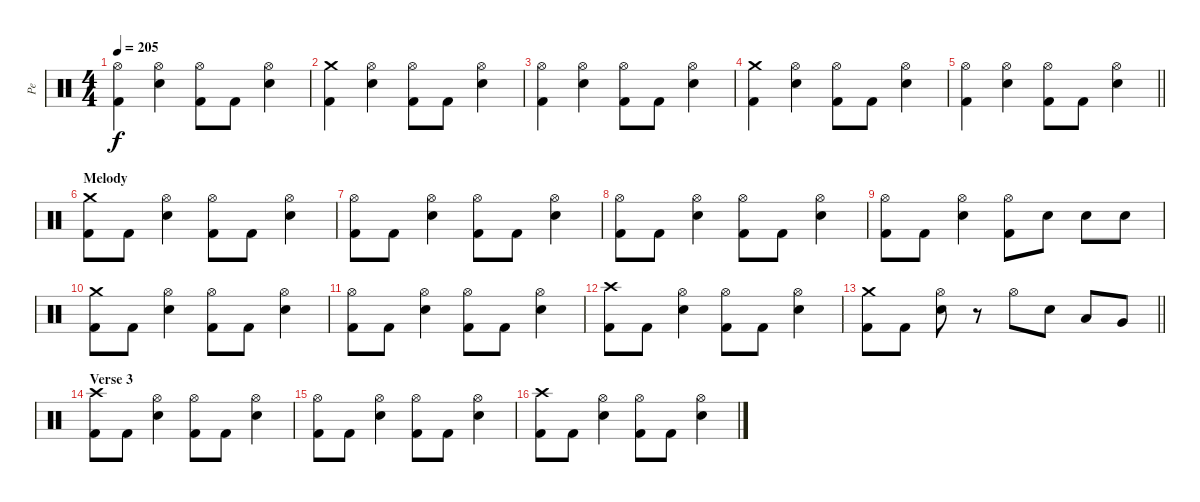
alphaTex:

\track ("Pe" "Pe") {instrument percussion}
\staff {score}
\articulation defaults
\ts (4 4)
\tempo 205
\clef neutral
\ks c
("Hi-Hat (open)" "Kick (hit) 2").4{dy f} ("Hi-Hat (open)" "Electric Snare (hit)").4 ("Hi-Hat (open)" "Kick (hit) 2").8 "Kick (hit) 2".8 ("Hi-Hat (open)" "Electric Snare (hit)").4 |
("Crash medium (hit)" "Kick (hit) 2").4 ("Hi-Hat (open)" "Electric Snare (hit)").4 ("Hi-Hat (open)" "Kick (hit) 2").8 "Kick (hit) 2".8 ("Hi-Hat (open)" "Electric Snare (hit)").4 |
("Hi-Hat (open)" "Kick (hit) 2").4 ("Hi-Hat (open)" "Electric Snare (hit)").4 ("Hi-Hat (open)" "Kick (hit) 2").8 "Kick (hit) 2".8 ("Hi-Hat (open)" "Electric Snare (hit)").4 |
("Crash medium (hit)" "Kick (hit) 2").4 ("Hi-Hat (open)" "Electric Snare (hit)").4 ("Hi-Hat (open)" "Kick (hit) 2").8 "Kick (hit) 2".8 ("Hi-Hat (open)" "Electric Snare (hit)").4 |
\barLineRight lightlight
("Hi-Hat (open)" "Kick (hit) 2").4 ("Hi-Hat (open)" "Electric Snare (hit)").4 ("Hi-Hat (open)" "Kick (hit) 2").8 "Kick (hit) 2".8 ("Hi-Hat (open)" "Electric Snare (hit)").4 |
\section ("" "Melody")
("Crash medium (hit)" "Kick (hit) 2").8 "Kick (hit) 2".8 ("Hi-Hat (open)" "Electric Snare (hit)").4 ("Hi-Hat (open)" "Kick (hit) 2").8 "Kick (hit) 2".8 ("Hi-Hat (open)" "Electric Snare (hit)").4 |
("Hi-Hat (open)" "Kick (hit) 2").8 "Kick (hit) 2".8 ("Hi-Hat (open)" "Electric Snare (hit)").4 ("Hi-Hat (open)" "Kick (hit) 2").8 "Kick (hit) 2".8 ("Hi-Hat (open)" "Electric Snare (hit)").4 |
("Hi-Hat (open)" "Kick (hit) 2").8 "Kick (hit) 2".8 ("Hi-Hat (open)" "Electric Snare (hit)").4 ("Hi-Hat (open)" "Kick (hit) 2").8 "Kick (hit) 2".8 ("Hi-Hat (open)" "Electric Snare (hit)").4 |
("Hi-Hat (open)" "Kick (hit) 2").8 "Kick (hit) 2".8 ("Hi-Hat (open)" "Electric Snare (hit)").4 ("Hi-Hat (open)" "Kick (hit) 2").8 "Electric Snare (hit)".8 "Electric Snare (hit)".8 "Electric Snare (hit)".8 |
("Crash medium (hit)" "Kick (hit) 2").8 "Kick (hit) 2".8 ("Hi-Hat (open)" "Electric Snare (hit)").4 ("Hi-Hat (open)" "Kick (hit) 2").8 "Kick (hit) 2".8 ("Hi-Hat (open)" "Electric Snare (hit)").4 |
("Hi-Hat (open)" "Kick (hit) 2").8 "Kick (hit) 2".8 ("Hi-Hat (open)" "Electric Snare (hit)").4 ("Hi-Hat (open)" "Kick (hit) 2").8 "Kick (hit) 2".8 ("Hi-Hat (open)" "Electric Snare (hit)").4 |
("Crash high (hit)" "Kick (hit) 2").8 "Kick (hit) 2".8 ("Hi-Hat (open)" "Electric Snare (hit)").4 ("Hi-Hat (open)" "Kick (hit) 2").8 "Kick (hit) 2".8 ("Hi-Hat (open)" "Electric Snare (hit)").4 |
\barLineRight lightlight
("Crash medium (hit)" "Kick (hit) 2").8 "Kick (hit) 2".8 ("Hi-Hat (open)" "Electric Snare (hit)").8 r.8 "Hi-Hat (open)".8 "Electric Snare (hit)".8 "Low Tom (hit)".8 "Very Low Tom (hit)".8 |
\section ("" "Verse 3")
("Crash high (hit)" "Kick (hit) 2").8 "Kick (hit) 2".8 ("Hi-Hat (open)" "Electric Snare (hit)").4 ("Hi-Hat (open)" "Kick (hit) 2").8 "Kick (hit) 2".8 ("Hi-Hat (open)" "Electric Snare (hit)").4 |
("Hi-Hat (open)" "Kick (hit) 2").8 "Kick (hit) 2".8 ("Hi-Hat (open)" "Electric Snare (hit)").4 ("Hi-Hat (open)" "Kick (hit) 2").8 "Kick (hit) 2".8 ("Hi-Hat (open)" "Electric Snare (hit)").4 |
("Crash high (hit)" "Kick (hit) 2").8 "Kick (hit) 2".8 ("Hi-Hat (open)" "Electric Snare (hit)").4 ("Hi-Hat (open)" "Kick (hit) 2").8 "Kick (hit) 2".8 ("Hi-Hat (open)" "Electric Snare (hit)").4
